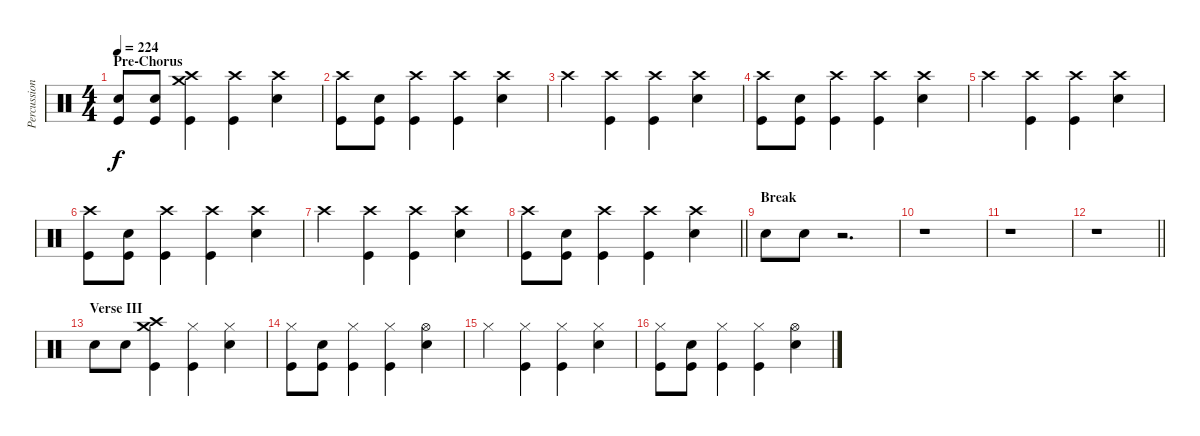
\track ("Percussion" "Percussion") {instrument percussion}
\staff {score}
\articulation defaults
\ts (4 4)
\section ("" "Pre-Chorus")
\tempo 224
\clef neutral
\ks c
("Electric Snare (hit)" "Kick (hit)").8{dy f} ("Electric Snare (hit)" "Kick (hit)").8 ("Crash high (hit)" "Crash medium (hit)" "Kick (hit)").4 ("Crash high (hit)" "Kick (hit)").4 ("Crash high (hit)" "Electric Snare (hit)").4 |
("Crash high (hit)" "Kick (hit)").8 ("Electric Snare (hit)" "Kick (hit)").8 ("Crash high (hit)" "Kick (hit)").4 ("Crash high (hit)" "Kick (hit)").4 ("Crash high (hit)" "Electric Snare (hit)").4 |
"Crash high (hit)".4 ("Crash high (hit)" "Kick (hit)").4 ("Crash high (hit)" "Kick (hit)").4 ("Crash high (hit)" "Electric Snare (hit)").4 |
("Crash high (hit)" "Kick (hit)").8 ("Electric Snare (hit)" "Kick (hit)").8 ("Crash high (hit)" "Kick (hit)").4 ("Crash high (hit)" "Kick (hit)").4 ("Crash high (hit)" "Electric Snare (hit)").4 |
"Crash high (hit)".4 ("Crash high (hit)" "Kick (hit)").4 ("Crash high (hit)" "Kick (hit)").4 ("Crash high (hit)" "Electric Snare (hit)").4 |
("Crash high (hit)" "Kick (hit)").8 ("Electric Snare (hit)" "Kick (hit)").8 ("Crash high (hit)" "Kick (hit)").4 ("Crash high (hit)" "Kick (hit)").4 ("Crash high (hit)" "Electric Snare (hit)").4 |
"Crash high (hit)".4 ("Crash high (hit)" "Kick (hit)").4 ("Crash high (hit)" "Kick (hit)").4 ("Crash high (hit)" "Electric Snare (hit)").4 |
\barLineRight lightlight
("Crash high (hit)" "Kick (hit)").8 ("Electric Snare (hit)" "Kick (hit)").8 ("Crash high (hit)" "Kick (hit)").4 ("Crash high (hit)" "Kick (hit)").4 ("Crash high (hit)" "Electric Snare (hit)").4 |
\section ("" "Break")
"Electric Snare (hit)".8 "Electric Snare (hit)".8 r.2{d} |
r.1 |
r.1 |
\barLineRight lightlight
r.1 |
\section ("" "Verse III")
"Electric Snare (hit)".8 "Electric Snare (hit)".8 ("Crash high (hit)" "Crash medium (hit)" "Kick (hit)").4 ("Hi-Hat (closed)" "Kick (hit)").4 ("Hi-Hat (closed)" "Electric Snare (hit)").4 |
("Hi-Hat (closed)" "Kick (hit)").8 ("Electric Snare (hit)" "Kick (hit)").8 ("Hi-Hat (closed)" "Kick (hit)").4 ("Hi-Hat (closed)" "Kick (hit)").4 ("Hi-Hat (open)" "Electric Snare (hit)").4 |
"Hi-Hat (closed)".4 ("Hi-Hat (closed)" "Kick (hit)").4 ("Hi-Hat (closed)" "Kick (hit)").4 ("Hi-Hat (closed)" "Electric Snare (hit)").4 |
("Hi-Hat (closed)" "Kick (hit)").8 ("Electric Snare (hit)" "Kick (hit)").8 ("Hi-Hat (closed)" "Kick (hit)").4 ("Hi-Hat (closed)" "Kick (hit)").4 ("Hi-Hat (open)" "Electric Snare (hit)").4
